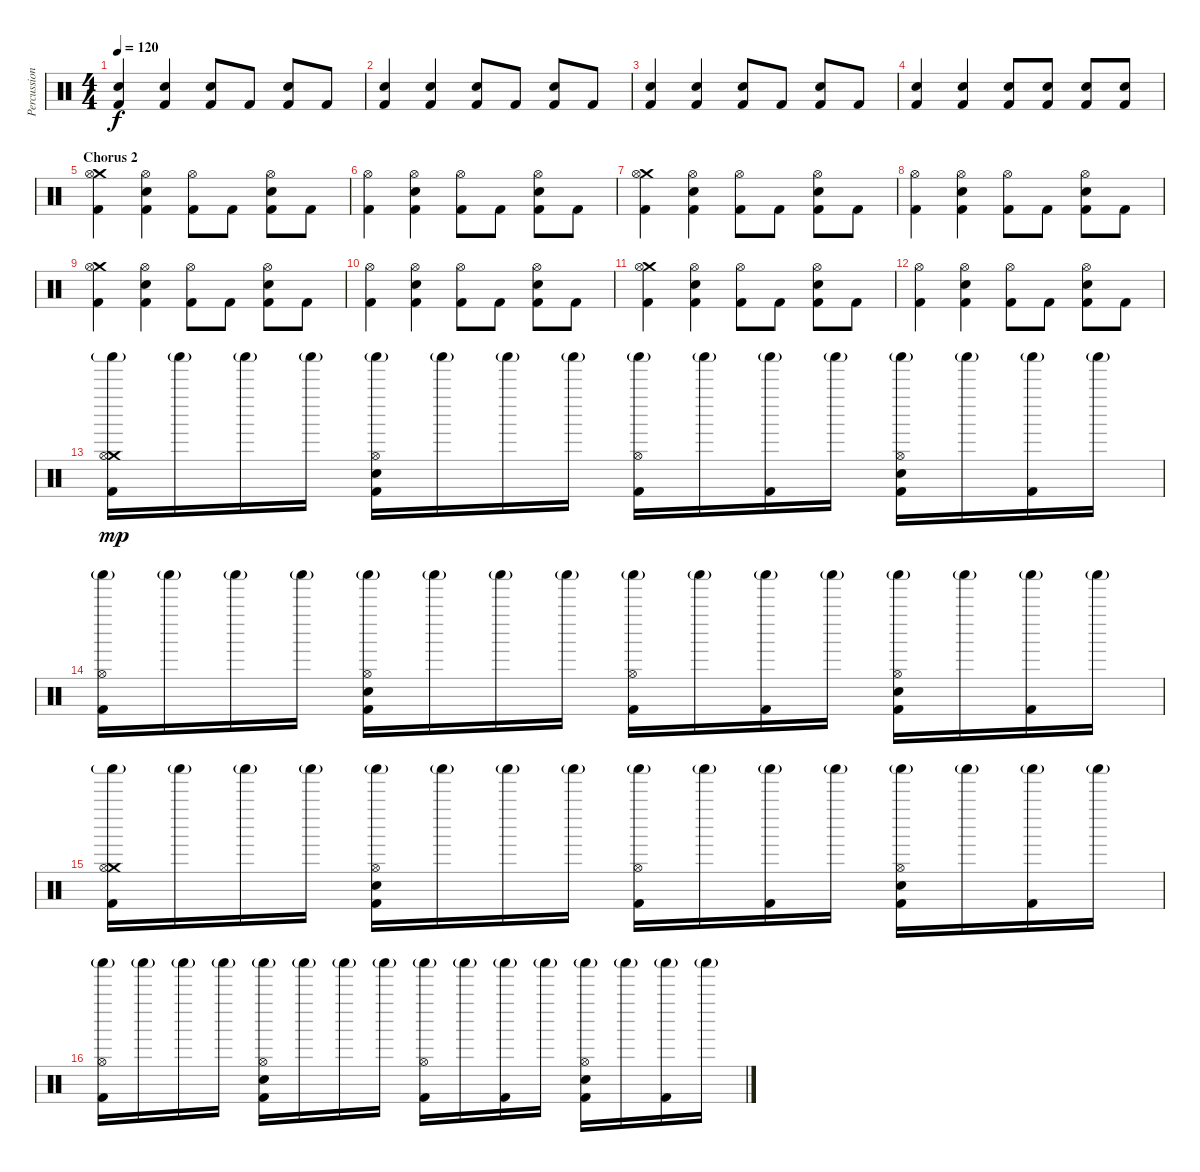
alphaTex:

\track ("Percussions" "Percussion") {instrument percussion}
\staff {score}
\articulation defaults
\ts (4 4)
\tempo 120
\clef neutral
\ks c
("Electric Snare (hit)" "Kick (hit) 2").4{dy f} ("Electric Snare (hit)" "Kick (hit) 2").4 ("Electric Snare (hit)" "Kick (hit) 2").8 "Kick (hit) 2".8 ("Electric Snare (hit)" "Kick (hit) 2").8 "Kick (hit) 2".8 |
("Electric Snare (hit)" "Kick (hit) 2").4 ("Electric Snare (hit)" "Kick (hit) 2").4 ("Electric Snare (hit)" "Kick (hit) 2").8 "Kick (hit) 2".8 ("Electric Snare (hit)" "Kick (hit) 2").8 "Kick (hit) 2".8 |
("Electric Snare (hit)" "Kick (hit) 2").4 ("Electric Snare (hit)" "Kick (hit) 2").4 ("Electric Snare (hit)" "Kick (hit) 2").8 "Kick (hit) 2".8 ("Electric Snare (hit)" "Kick (hit) 2").8 "Kick (hit) 2".8 |
("Electric Snare (hit)" "Kick (hit) 2").4 ("Electric Snare (hit)" "Kick (hit) 2").4 ("Electric Snare (hit)" "Kick (hit) 2").8 ("Electric Snare (hit)" "Kick (hit) 2").8 ("Electric Snare (hit)" "Kick (hit) 2").8 ("Electric Snare (hit)" "Kick (hit) 2").8 |
\section ("" "Chorus 2")
("Crash medium (hit)" "Hi-Hat (open)" "Kick (hit) 2").4 ("Hi-Hat (open)" "Electric Snare (hit)" "Kick (hit) 2").4 ("Hi-Hat (open)" "Kick (hit) 2").8 "Kick (hit) 2".8 ("Hi-Hat (open)" "Electric Snare (hit)" "Kick (hit) 2").8 "Kick (hit) 2".8 |
("Hi-Hat (open)" "Kick (hit) 2").4 ("Hi-Hat (open)" "Electric Snare (hit)" "Kick (hit) 2").4 ("Hi-Hat (open)" "Kick (hit) 2").8 "Kick (hit) 2".8 ("Hi-Hat (open)" "Electric Snare (hit)" "Kick (hit) 2").8 "Kick (hit) 2".8 |
("Crash medium (hit)" "Hi-Hat (open)" "Kick (hit) 2").4 ("Hi-Hat (open)" "Electric Snare (hit)" "Kick (hit) 2").4 ("Hi-Hat (open)" "Kick (hit) 2").8 "Kick (hit) 2".8 ("Hi-Hat (open)" "Electric Snare (hit)" "Kick (hit) 2").8 "Kick (hit) 2".8 |
("Hi-Hat (open)" "Kick (hit) 2").4 ("Hi-Hat (open)" "Electric Snare (hit)" "Kick (hit) 2").4 ("Hi-Hat (open)" "Kick (hit) 2").8 "Kick (hit) 2".8 ("Hi-Hat (open)" "Electric Snare (hit)" "Kick (hit) 2").8 "Kick (hit) 2".8 |
("Crash medium (hit)" "Hi-Hat (open)" "Kick (hit) 2").4 ("Hi-Hat (open)" "Electric Snare (hit)" "Kick (hit) 2").4 ("Hi-Hat (open)" "Kick (hit) 2").8 "Kick (hit) 2".8 ("Hi-Hat (open)" "Electric Snare (hit)" "Kick (hit) 2").8 "Kick (hit) 2".8 |
("Hi-Hat (open)" "Kick (hit) 2").4 ("Hi-Hat (open)" "Electric Snare (hit)" "Kick (hit) 2").4 ("Hi-Hat (open)" "Kick (hit) 2").8 "Kick (hit) 2".8 ("Hi-Hat (open)" "Electric Snare (hit)" "Kick (hit) 2").8 "Kick (hit) 2".8 |
("Crash medium (hit)" "Hi-Hat (open)" "Kick (hit) 2").4 ("Hi-Hat (open)" "Electric Snare (hit)" "Kick (hit) 2").4 ("Hi-Hat (open)" "Kick (hit) 2").8 "Kick (hit) 2".8 ("Hi-Hat (open)" "Electric Snare (hit)" "Kick (hit) 2").8 "Kick (hit) 2".8 |
("Hi-Hat (open)" "Kick (hit) 2").4 ("Hi-Hat (open)" "Electric Snare (hit)" "Kick (hit) 2").4 ("Hi-Hat (open)" "Kick (hit) 2").8 "Kick (hit) 2".8 ("Hi-Hat (open)" "Electric Snare (hit)" "Kick (hit) 2").8 "Kick (hit) 2".8 |
("Crash medium (hit)" "Hi-Hat (open)" "Shaker (hit)"{g} "Kick (hit) 2").16{dy mp} "Shaker (hit)"{g}.16 "Shaker (hit)"{g}.16 "Shaker (hit)"{g}.16 ("Hi-Hat (open)" "Electric Snare (hit)" "Shaker (hit)"{g} "Kick (hit) 2").16 "Shaker (hit)"{g}.16 "Shaker (hit)"{g}.16 "Shaker (hit)"{g}.16 ("Hi-Hat (open)" "Shaker (hit)"{g} "Kick (hit) 2").16 "Shaker (hit)"{g}.16 ("Shaker (hit)"{g} "Kick (hit) 2").16 "Shaker (hit)"{g}.16 ("Hi-Hat (open)" "Electric Snare (hit)" "Shaker (hit)"{g} "Kick (hit) 2").16 "Shaker (hit)"{g}.16 ("Shaker (hit)"{g} "Kick (hit) 2").16 "Shaker (hit)"{g}.16 |
("Hi-Hat (open)" "Shaker (hit)"{g} "Kick (hit) 2").16 "Shaker (hit)"{g}.16 "Shaker (hit)"{g}.16 "Shaker (hit)"{g}.16 ("Hi-Hat (open)" "Electric Snare (hit)" "Shaker (hit)"{g} "Kick (hit) 2").16 "Shaker (hit)"{g}.16 "Shaker (hit)"{g}.16 "Shaker (hit)"{g}.16 ("Hi-Hat (open)" "Shaker (hit)"{g} "Kick (hit) 2").16 "Shaker (hit)"{g}.16 ("Shaker (hit)"{g} "Kick (hit) 2").16 "Shaker (hit)"{g}.16 ("Hi-Hat (open)" "Electric Snare (hit)" "Shaker (hit)"{g} "Kick (hit) 2").16 "Shaker (hit)"{g}.16 ("Shaker (hit)"{g} "Kick (hit) 2").16 "Shaker (hit)"{g}.16 |
("Crash medium (hit)" "Hi-Hat (open)" "Shaker (hit)"{g} "Kick (hit) 2").16 "Shaker (hit)"{g}.16 "Shaker (hit)"{g}.16 "Shaker (hit)"{g}.16 ("Hi-Hat (open)" "Electric Snare (hit)" "Shaker (hit)"{g} "Kick (hit) 2").16 "Shaker (hit)"{g}.16 "Shaker (hit)"{g}.16 "Shaker (hit)"{g}.16 ("Hi-Hat (open)" "Shaker (hit)"{g} "Kick (hit) 2").16 "Shaker (hit)"{g}.16 ("Shaker (hit)"{g} "Kick (hit) 2").16 "Shaker (hit)"{g}.16 ("Hi-Hat (open)" "Electric Snare (hit)" "Shaker (hit)"{g} "Kick (hit) 2").16 "Shaker (hit)"{g}.16 ("Shaker (hit)"{g} "Kick (hit) 2").16 "Shaker (hit)"{g}.16 |
("Hi-Hat (open)" "Shaker (hit)"{g} "Kick (hit) 2").16 "Shaker (hit)"{g}.16 "Shaker (hit)"{g}.16 "Shaker (hit)"{g}.16 ("Hi-Hat (open)" "Electric Snare (hit)" "Shaker (hit)"{g} "Kick (hit) 2").16 "Shaker (hit)"{g}.16 "Shaker (hit)"{g}.16 "Shaker (hit)"{g}.16 ("Hi-Hat (open)" "Shaker (hit)"{g} "Kick (hit) 2").16 "Shaker (hit)"{g}.16 ("Shaker (hit)"{g} "Kick (hit) 2").16 "Shaker (hit)"{g}.16 ("Hi-Hat (open)" "Electric Snare (hit)" "Shaker (hit)"{g} "Kick (hit) 2").16 "Shaker (hit)"{g}.16 ("Shaker (hit)"{g} "Kick (hit) 2").16 "Shaker (hit)"{g}.16
